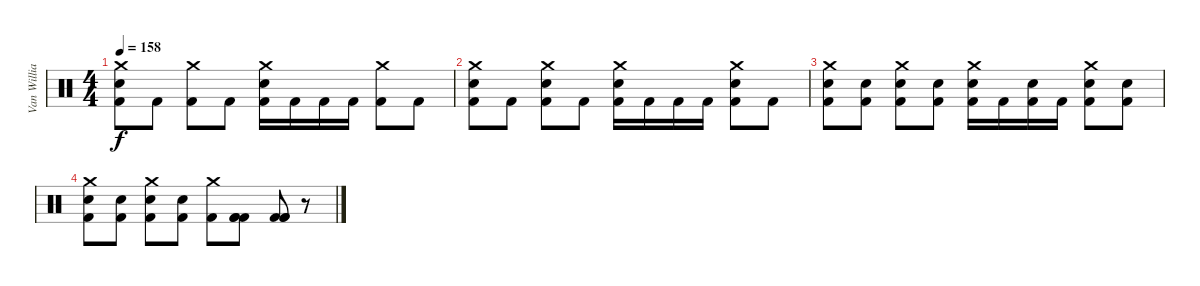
\track ("Van Williams" "Van Willia") {instrument percussion}
\staff {score}
\articulation defaults
\ts (4 4)
\tempo 158
\clef neutral
\ks c
("Crash medium (hit)" "Electric Snare (hit)" "Kick (hit) 2").8{dy f} "Kick (hit) 2".8 ("Crash medium (hit)" "Kick (hit) 2").8 "Kick (hit) 2".8 ("Crash medium (hit)" "Electric Snare (hit)" "Kick (hit) 2").16 "Kick (hit) 2".16 "Kick (hit) 2".16 "Kick (hit) 2".16 ("Crash medium (hit)" "Kick (hit) 2").8 "Kick (hit) 2".8 |
("Crash medium (hit)" "Electric Snare (hit)" "Kick (hit) 2").8 "Kick (hit) 2".8 ("Crash medium (hit)" "Electric Snare (hit)" "Kick (hit) 2").8 "Kick (hit) 2".8 ("Crash medium (hit)" "Electric Snare (hit)" "Kick (hit) 2").16 "Kick (hit) 2".16 "Kick (hit) 2".16 "Kick (hit) 2".16 ("Crash medium (hit)" "Electric Snare (hit)" "Kick (hit) 2").8 "Kick (hit) 2".8 |
("Crash medium (hit)" "Electric Snare (hit)" "Kick (hit) 2").8 ("Electric Snare (hit)" "Kick (hit) 2").8 ("Crash medium (hit)" "Electric Snare (hit)" "Kick (hit) 2").8 ("Electric Snare (hit)" "Kick (hit) 2").8 ("Crash medium (hit)" "Electric Snare (hit)" "Kick (hit) 2").16 "Kick (hit) 2".16 ("Electric Snare (hit)" "Kick (hit) 2").16 "Kick (hit) 2".16 ("Crash medium (hit)" "Electric Snare (hit)" "Kick (hit) 2").8 ("Electric Snare (hit)" "Kick (hit) 2").8 |
("Crash medium (hit)" "Electric Snare (hit)" "Kick (hit) 2").8 ("Electric Snare (hit)" "Kick (hit) 2").8 ("Crash medium (hit)" "Electric Snare (hit)" "Kick (hit) 2").8 ("Electric Snare (hit)" "Kick (hit) 2").8 ("Crash medium (hit)" "Kick (hit) 2").8 ("Kick (hit) 2" "Kick (hit) 2" "Kick (hit) 2").8 ("Kick (hit) 2" "Kick (hit) 2" "Kick (hit) 2").8 r.8
